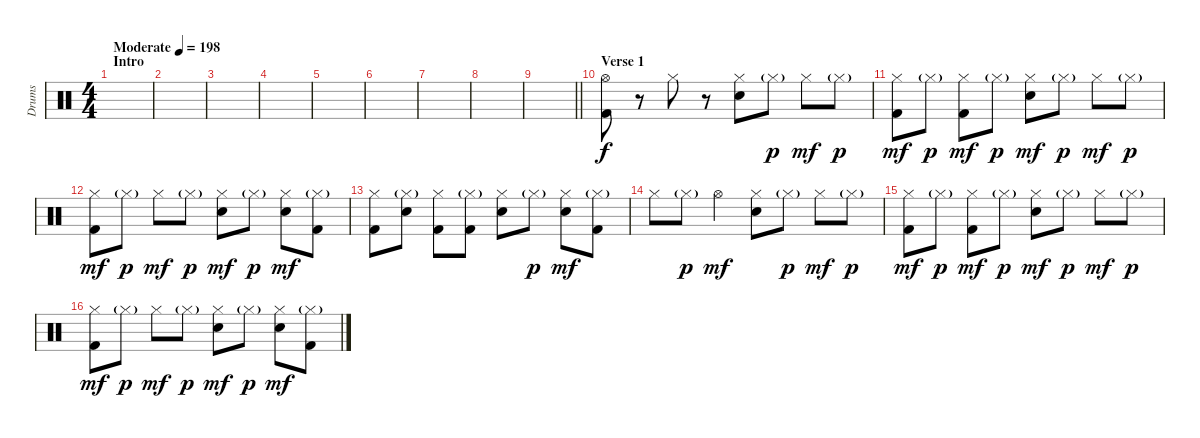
\track ("Drums" "Drums") {instrument percussion}
\staff {score}
\articulation defaults
\ts (4 4)
\section ("" "Intro")
\tempo (198 "Moderate")
\clef neutral
\ks c
|
|
|
|
|
|
|
|
\barLineRight lightlight
|
\section ("" "Verse 1")
("Hi-Hat (open)" "Kick (hit) 2").8 r.8 "Hi-Hat (closed)".8 r.8 ("Hi-Hat (closed)" "Snare (hit) 2").8 "Hi-Hat (closed)"{g}.8{dy p} "Hi-Hat (closed)".8{dy mf} "Hi-Hat (closed)"{g}.8{dy p} |
("Hi-Hat (closed)" "Kick (hit) 2").8{dy mf} "Hi-Hat (closed)"{g}.8{dy p} ("Hi-Hat (closed)" "Kick (hit) 2").8{dy mf} "Hi-Hat (closed)"{g}.8{dy p} ("Hi-Hat (closed)" "Snare (hit) 2").8{dy mf} "Hi-Hat (closed)"{g}.8{dy p} "Hi-Hat (closed)".8{dy mf} "Hi-Hat (closed)"{g}.8{dy p} |
("Hi-Hat (closed)" "Kick (hit) 2").8{dy mf} "Hi-Hat (closed)"{g}.8{dy p} "Hi-Hat (closed)".8{dy mf} "Hi-Hat (closed)"{g}.8{dy p} ("Hi-Hat (closed)" "Snare (hit) 2").8{dy mf} "Hi-Hat (closed)"{g}.8{dy p} ("Hi-Hat (closed)" "Snare (hit) 2").8{dy mf} ("Hi-Hat (closed)"{g} "Kick (hit) 2").8 |
("Hi-Hat (closed)" "Kick (hit) 2").8 ("Hi-Hat (closed)"{g} "Snare (hit) 2").8 ("Hi-Hat (closed)" "Kick (hit) 2").8 ("Hi-Hat (closed)"{g} "Kick (hit) 2").8 ("Hi-Hat (closed)" "Snare (hit) 2").8 "Hi-Hat (closed)"{g}.8{dy p} ("Hi-Hat (closed)" "Snare (hit) 2").8{dy mf} ("Hi-Hat (closed)"{g} "Kick (hit) 2").8 |
"Hi-Hat (closed)".8 "Hi-Hat (closed)"{g}.8{dy p} "Hi-Hat (open)".4{dy mf} ("Hi-Hat (closed)" "Snare (hit) 2").8 "Hi-Hat (closed)"{g}.8{dy p} "Hi-Hat (closed)".8{dy mf} "Hi-Hat (closed)"{g}.8{dy p} |
("Hi-Hat (closed)" "Kick (hit) 2").8{dy mf} "Hi-Hat (closed)"{g}.8{dy p} ("Hi-Hat (closed)" "Kick (hit) 2").8{dy mf} "Hi-Hat (closed)"{g}.8{dy p} ("Hi-Hat (closed)" "Snare (hit) 2").8{dy mf} "Hi-Hat (closed)"{g}.8{dy p} "Hi-Hat (closed)".8{dy mf} "Hi-Hat (closed)"{g}.8{dy p} |
("Hi-Hat (closed)" "Kick (hit) 2").8{dy mf} "Hi-Hat (closed)"{g}.8{dy p} "Hi-Hat (closed)".8{dy mf} "Hi-Hat (closed)"{g}.8{dy p} ("Hi-Hat (closed)" "Snare (hit) 2").8{dy mf} "Hi-Hat (closed)"{g}.8{dy p} ("Hi-Hat (closed)" "Snare (hit) 2").8{dy mf} ("Hi-Hat (closed)"{g} "Kick (hit) 2").8
